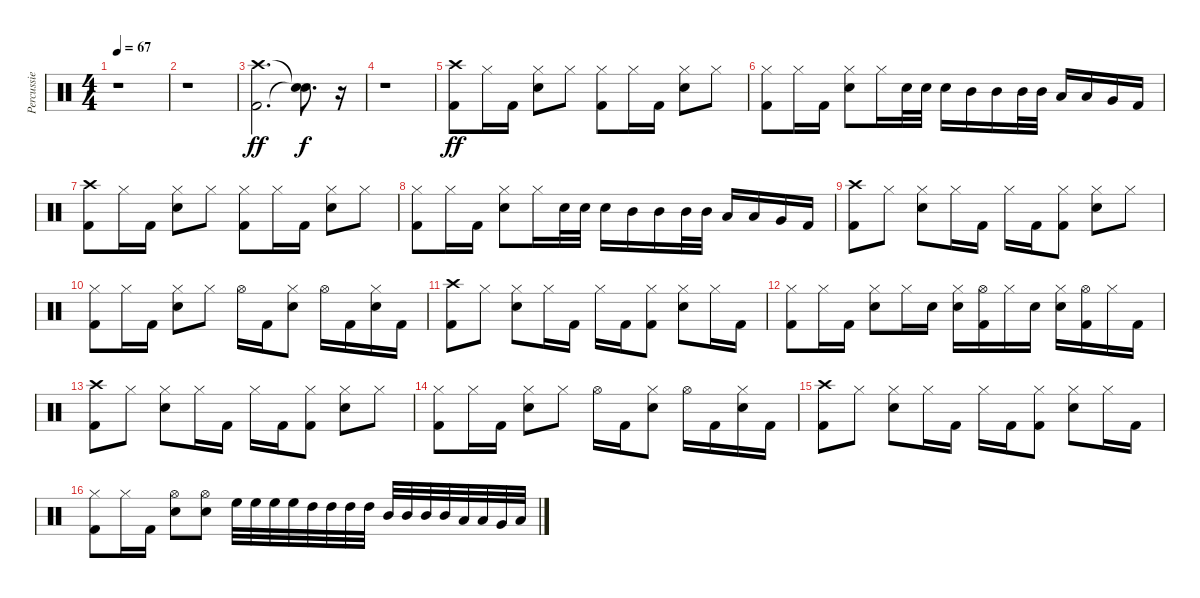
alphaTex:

\track ("Percussie" "Percussie") {instrument percussion}
\staff {score}
\articulation defaults
\ts (4 4)
\tempo 67
\clef neutral
\ks c
r.1{dy ff} |
r.1 |
("Kick (hit) 2" "Crash high (hit)").2{d} ("Snare (hit)"{t} "Snare (hit)"{t}).8{d dy f} r.16 |
r.1 |
("Kick (hit) 2" "Crash high (hit)").8{dy ff} "Hi-Hat (closed)".16 "Kick (hit) 2".16 ("Snare (hit) 2" "Hi-Hat (closed)").8 "Hi-Hat (closed)".8 ("Kick (hit) 2" "Hi-Hat (closed)").8 "Hi-Hat (closed)".16 "Kick (hit) 2".16 ("Snare (hit) 2" "Hi-Hat (closed)").8 "Hi-Hat (closed)".8 |
("Kick (hit) 2" "Hi-Hat (closed)").8 "Hi-Hat (closed)".16 "Kick (hit) 2".16 ("Snare (hit) 2" "Hi-Hat (closed)").8 "Hi-Hat (closed)".16 "Snare (hit) 2".32 "Snare (hit) 2".32 "Snare (hit) 2".16 "Mid Tom (hit)".16 "Mid Tom (hit)".16 "Mid Tom (hit)".32 "Mid Tom (hit)".32 "Low Tom (hit)".16 "Low Tom (hit)".16 "Very Low Tom (hit)".16 "Kick (hit) 2".16 |
("Kick (hit) 2" "Crash high (hit)").8 "Hi-Hat (closed)".16 "Kick (hit) 2".16 ("Snare (hit) 2" "Hi-Hat (closed)").8 "Hi-Hat (closed)".8 ("Kick (hit) 2" "Hi-Hat (closed)").8 "Hi-Hat (closed)".16 "Kick (hit) 2".16 ("Snare (hit) 2" "Hi-Hat (closed)").8 "Hi-Hat (closed)".8 |
("Kick (hit) 2" "Hi-Hat (closed)").8 "Hi-Hat (closed)".16 "Kick (hit) 2".16 ("Snare (hit) 2" "Hi-Hat (closed)").8 "Hi-Hat (closed)".16 "Snare (hit) 2".32 "Snare (hit) 2".32 "Snare (hit) 2".16 "Mid Tom (hit)".16 "Mid Tom (hit)".16 "Mid Tom (hit)".32 "Mid Tom (hit)".32 "Low Tom (hit)".16 "Low Tom (hit)".16 "Very Low Tom (hit)".16 "Kick (hit) 2".16 |
("Kick (hit) 2" "Crash high (hit)").8 "Hi-Hat (closed)".8 ("Snare (hit) 2" "Hi-Hat (closed)").8 "Hi-Hat (closed)".16 "Kick (hit) 2".16 "Hi-Hat (closed)".16 "Kick (hit) 2".16 ("Kick (hit) 2" "Hi-Hat (closed)").8 ("Snare (hit) 2" "Hi-Hat (closed)").8 "Hi-Hat (closed)".8 |
("Kick (hit) 2" "Hi-Hat (closed)").8 "Hi-Hat (closed)".16 "Kick (hit) 2".16 ("Snare (hit) 2" "Hi-Hat (closed)").8 "Hi-Hat (closed)".8 "Hi-Hat (open)".16 "Kick (hit) 2".16 ("Snare (hit) 2" "Hi-Hat (closed)").8 "Hi-Hat (open)".16 "Kick (hit) 2".16 ("Snare (hit) 2" "Hi-Hat (closed)").16 "Kick (hit) 2".16 |
("Kick (hit) 2" "Crash high (hit)").8 "Hi-Hat (closed)".8 ("Snare (hit) 2" "Hi-Hat (closed)").8 "Hi-Hat (closed)".16 "Kick (hit) 2".16 "Hi-Hat (closed)".16 "Kick (hit) 2".16 ("Kick (hit) 2" "Hi-Hat (closed)").8 ("Snare (hit) 2" "Hi-Hat (closed)").8 "Hi-Hat (closed)".16 "Kick (hit) 2".16 |
("Kick (hit) 2" "Hi-Hat (closed)").8 "Hi-Hat (closed)".16 "Kick (hit) 2".16 ("Snare (hit) 2" "Hi-Hat (closed)").8 "Hi-Hat (closed)".16 "Snare (hit) 2".16 ("Snare (hit) 2" "Hi-Hat (closed)").16 ("Kick (hit) 2" "Hi-Hat (open)").16 "Hi-Hat (closed)".16 "Snare (hit) 2".16 ("Snare (hit) 2" "Hi-Hat (closed)").16 ("Kick (hit) 2" "Hi-Hat (open)").16 "Hi-Hat (closed)".16 "Kick (hit) 2".16 |
("Kick (hit) 2" "Crash high (hit)").8 "Hi-Hat (closed)".8 ("Snare (hit) 2" "Hi-Hat (closed)").8 "Hi-Hat (closed)".16 "Kick (hit) 2".16 "Hi-Hat (closed)".16 "Kick (hit) 2".16 ("Kick (hit) 2" "Hi-Hat (closed)").8 ("Snare (hit) 2" "Hi-Hat (closed)").8 "Hi-Hat (closed)".8 |
("Kick (hit) 2" "Hi-Hat (closed)").8 "Hi-Hat (closed)".16 "Kick (hit) 2".16 ("Snare (hit) 2" "Hi-Hat (closed)").8 "Hi-Hat (closed)".8 "Hi-Hat (open)".16 "Kick (hit) 2".16 ("Snare (hit) 2" "Hi-Hat (closed)").8 "Hi-Hat (open)".16 "Kick (hit) 2".16 ("Snare (hit) 2" "Hi-Hat (closed)").16 "Kick (hit) 2".16 |
("Kick (hit) 2" "Crash high (hit)").8 "Hi-Hat (closed)".8 ("Snare (hit) 2" "Hi-Hat (closed)").8 "Hi-Hat (closed)".16 "Kick (hit) 2".16 "Hi-Hat (closed)".16 "Kick (hit) 2".16 ("Kick (hit) 2" "Hi-Hat (closed)").8 ("Snare (hit) 2" "Hi-Hat (closed)").8 "Hi-Hat (closed)".16 "Kick (hit) 2".16 |
("Kick (hit) 2" "Hi-Hat (closed)").8 "Hi-Hat (closed)".16 "Kick (hit) 2".16 ("Snare (hit) 2" "Hi-Hat (open)").8 ("Snare (hit) 2" "Hi-Hat (open)").8 "High Floor Tom (hit)".32 "High Floor Tom (hit)".32 "High Floor Tom (hit)".32 "High Floor Tom (hit)".32 "High Tom (hit)".32 "High Tom (hit)".32 "High Tom (hit)".32 "High Tom (hit)".32 "Mid Tom (hit)".32 "Mid Tom (hit)".32 "Mid Tom (hit)".32 "Mid Tom (hit)".32 "Low Tom (hit)".32 "Low Tom (hit)".32 "Very Low Tom (hit)".32 "Low Floor Tom (hit)".32
